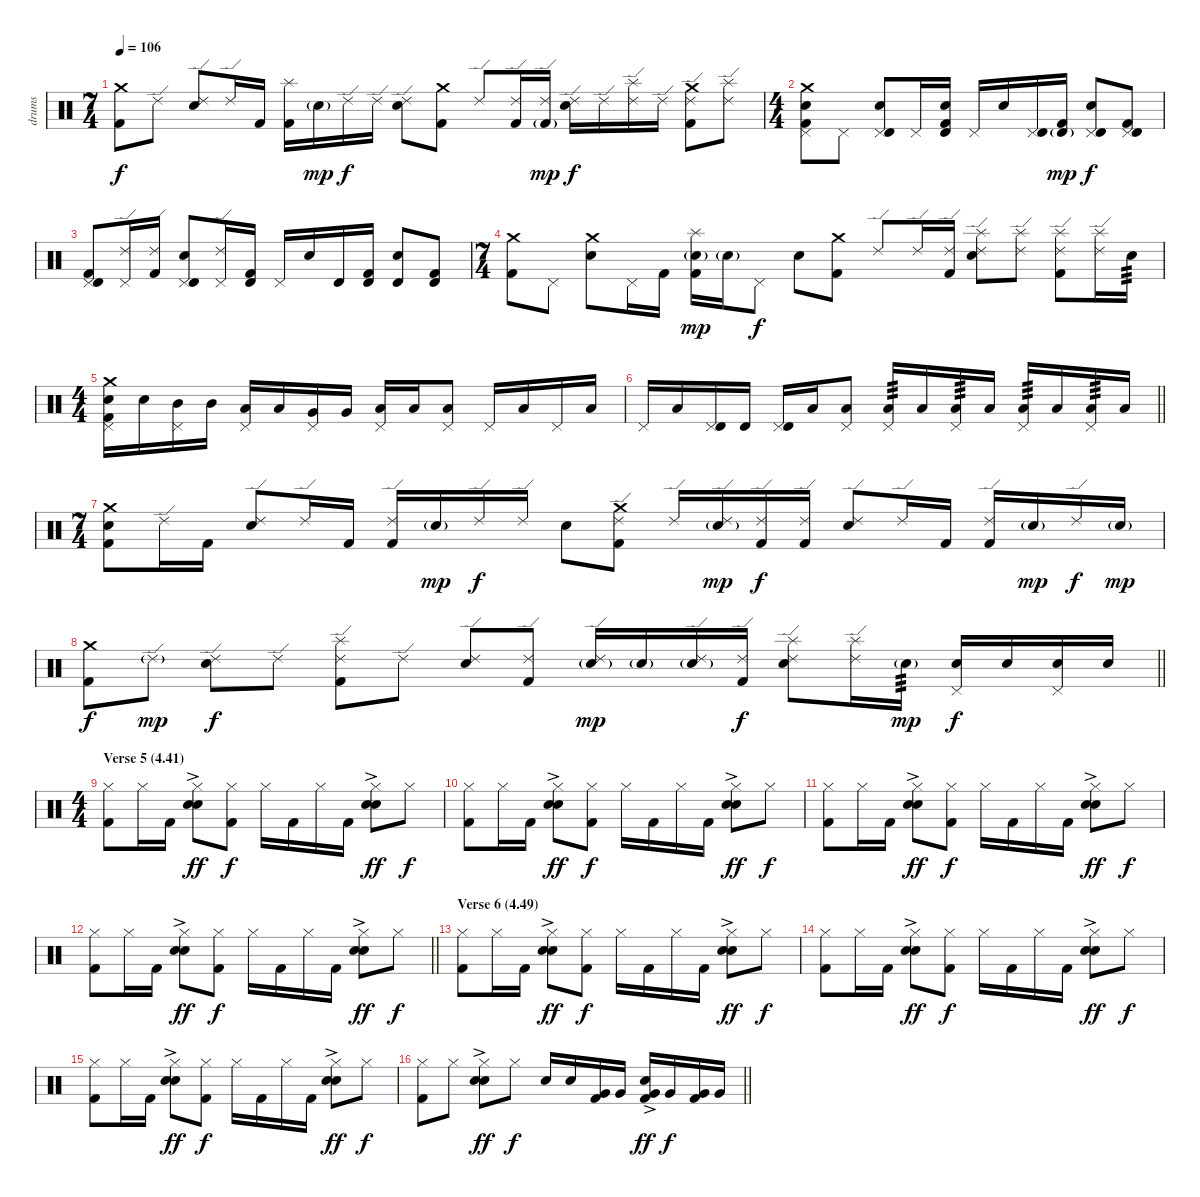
\track ("drums" "drums") {instrument percussion}
\staff {score}
\articulation defaults
\ts (7 4)
\tempo 106
\clef neutral
\ks c
("Crash medium (hit)" "Kick (hit) 2").8{dy f} "Ride (edge) 2".8 ("Ride (edge) 2" "Electric Snare (hit)").8 "Ride (edge) 2".16 "Kick (hit) 2".16 ("Splash (hit)" "Kick (hit) 2").16 "Electric Snare (hit)"{g}.16{dy mp} "Ride (edge) 2".16{dy f} "Ride (edge) 2".16 ("Ride (edge) 2" "Electric Snare (hit)").8 ("Crash medium (hit)" "Kick (hit) 2").8 "Ride (edge) 2".8 ("Ride (edge) 2" "Kick (hit) 2").16 ("Ride (edge) 2" "Kick (hit) 2"{g}).16{dy mp} ("Ride (edge) 2" "Electric Snare (hit)").16{dy f} "Ride (edge) 2".16 ("Ride (edge) 2" "Splash (hit)").16 "Ride (edge) 2".16 ("Ride (edge) 2" "Crash medium (hit)" "Kick (hit) 2").8 ("Ride (edge) 2" "Splash (hit)").8 |
\ts (4 4)
("Pedal Hi-Hat (hit)" "Crash medium (hit)" "Electric Snare (hit)" "Kick (hit) 2").8 "Pedal Hi-Hat (hit)".8 ("Pedal Hi-Hat (hit)" "Timbale high (hit)" "Electric Snare (hit)").8 "Pedal Hi-Hat (hit)".16 ("Timbale high (hit)" "Electric Snare (hit)" "Kick (hit) 2").16 "Pedal Hi-Hat (hit)".16 "Electric Snare (hit)".16 ("Pedal Hi-Hat (hit)" "Timbale high (hit)").16 ("Timbale high (hit)"{g} "Kick (hit) 2").16{dy mp} ("Pedal Hi-Hat (hit)" "Timbale high (hit)" "Electric Snare (hit)").8{dy f} ("Pedal Hi-Hat (hit)" "Timbale high (hit)" "Kick (hit) 2").8 |
("Pedal Hi-Hat (hit)" "Timbale high (hit)" "Kick (hit) 2").8 ("Ride (edge) 2" "Pedal Hi-Hat (hit)").16 ("Ride (edge) 2" "Kick (hit) 2").16 ("Pedal Hi-Hat (hit)" "Timbale high (hit)" "Electric Snare (hit)").8 ("Ride (edge) 2" "Pedal Hi-Hat (hit)").16 ("Timbale high (hit)" "Kick (hit) 2").16 "Pedal Hi-Hat (hit)".16 "Electric Snare (hit)".16 "Timbale high (hit)".16 ("Timbale high (hit)" "Kick (hit) 2").16 ("Timbale high (hit)" "Electric Snare (hit)").8 ("Timbale high (hit)" "Kick (hit) 2").8 |
\ts (7 4)
("Crash medium (hit)" "Kick (hit) 2").8 "Pedal Hi-Hat (hit)".8 ("Crash medium (hit)" "Electric Snare (hit)").8 "Pedal Hi-Hat (hit)".16 "Kick (hit) 2".16 ("Splash (hit)" "Electric Snare (hit)"{g} "Kick (hit) 2").16{dy mp} "Electric Snare (hit)"{g}.16 "Pedal Hi-Hat (hit)".8{dy f} "Electric Snare (hit)".8 ("Crash medium (hit)" "Kick (hit) 2").8 "Ride (edge) 2".8 "Ride (edge) 2".16 ("Ride (edge) 2" "Kick (hit) 2").16 ("Ride (edge) 2" "Splash (hit)" "Electric Snare (hit)").8 ("Ride (edge) 2" "Splash (hit)").8 ("Ride (edge) 2" "Splash (hit)" "Kick (hit) 2").8 ("Ride (edge) 2" "Splash (hit)").16 "Electric Snare (hit)".16{tp 3} |
\ts (4 4)
("Pedal Hi-Hat (hit)" "Crash medium (hit)" "Electric Snare (hit)" "Kick (hit) 2").16 "Electric Snare (hit)".16 ("Pedal Hi-Hat (hit)" "Mid Tom (hit)").16 "Mid Tom (hit)".16 ("Pedal Hi-Hat (hit)" "Low Tom (hit)").16 "Low Tom (hit)".16 ("Pedal Hi-Hat (hit)" "Very Low Tom (hit)").16 "Very Low Tom (hit)".16 ("Pedal Hi-Hat (hit)" "Low Floor Tom (hit)").16 "Low Floor Tom (hit)".16 ("Pedal Hi-Hat (hit)" "Low Floor Tom (hit)").8 "Pedal Hi-Hat (hit)".16 "Low Tom (hit)".16 "Pedal Hi-Hat (hit)".16 "Low Tom (hit)".16 |
\barLineRight lightlight "Pedal Hi-Hat (hit)".16 "Low Tom (hit)".16
("Pedal Hi-Hat (hit)" "Timbale high (hit)").16 "Timbale high (hit)".16 ("Pedal Hi-Hat (hit)" "Timbale high (hit)").16 "Low Tom (hit)".16 ("Pedal Hi-Hat (hit)" "Low Tom (hit)").8 ("Pedal Hi-Hat (hit)" "Low Tom (hit)").16{tp 3} "Low Tom (hit)".16 ("Pedal Hi-Hat (hit)" "Low Tom (hit)").16{tp 3} "Low Tom (hit)".16 ("Pedal Hi-Hat (hit)" "Low Tom (hit)").16{tp 3} "Low Tom (hit)".16 ("Pedal Hi-Hat (hit)" "Low Tom (hit)").16{tp 3} "Low Tom (hit)".16 |
\ts (7 4)
("Crash medium (hit)" "Electric Snare (hit)" "Kick (hit) 2").8 "Ride (edge) 2".16 "Kick (hit) 2".16 ("Ride (edge) 2" "Electric Snare (hit)").8 "Ride (edge) 2".16 "Kick (hit) 2".16 ("Ride (edge) 2" "Kick (hit) 2").16 "Electric Snare (hit)"{g}.16{dy mp} "Ride (edge) 2".16{dy f} "Ride (edge) 2".16 "Electric Snare (hit)".8 ("Ride (edge) 2" "Crash medium (hit)" "Kick (hit) 2").8 "Ride (edge) 2".16 ("Ride (edge) 2" "Electric Snare (hit)"{g}).16{dy mp} ("Ride (edge) 2" "Kick (hit) 2").16{dy f} ("Ride (edge) 2" "Kick (hit) 2").16 ("Ride (edge) 2" "Electric Snare (hit)").8 "Ride (edge) 2".16 "Kick (hit) 2".16 ("Ride (edge) 2" "Kick (hit) 2").16 "Electric Snare (hit)"{g}.16{dy mp} "Ride (edge) 2".16{dy f} "Electric Snare (hit)"{g}.16{dy mp} |
\barLineRight lightlight
("Crash medium (hit)" "Kick (hit) 2").8{dy f} "Ride (edge) 2"{g}.8{dy mp} ("Ride (edge) 2" "Electric Snare (hit)").8{dy f} "Ride (edge) 2".8 ("Ride (edge) 2" "Splash (hit)" "Kick (hit) 2").8 "Ride (edge) 2".8 ("Ride (edge) 2" "Electric Snare (hit)").8 ("Ride (edge) 2" "Kick (hit) 2").8 ("Ride (edge) 2" "Electric Snare (hit)"{g}).16{dy mp} "Electric Snare (hit)"{g}.16 ("Ride (edge) 2" "Electric Snare (hit)"{g}).16 ("Ride (edge) 2" "Kick (hit) 2").16{dy f} ("Ride (edge) 2" "Splash (hit)" "Electric Snare (hit)").8 ("Ride (edge) 2" "Splash (hit)").16 "Electric Snare (hit)"{g}.16{tp 3 dy mp} ("Pedal Hi-Hat (hit)" "Electric Snare (hit)").16{dy f} "Electric Snare (hit)".16 ("Pedal Hi-Hat (hit)" "Electric Snare (hit)").16 "Electric Snare (hit)".16 |
\ts (4 4)
\section ("" "Verse 5 (4.41)")
("Hi-Hat (closed)" "Kick (hit) 2").8 "Hi-Hat (closed)".16 "Kick (hit) 2".16 ("Hi-Hat (closed)" "Hand Clap (hit)"{ac} "Electric Snare (hit)").8{dy ff} ("Hi-Hat (closed)" "Kick (hit) 2").8{dy f} "Hi-Hat (closed)".16 "Kick (hit) 2".16 "Hi-Hat (closed)".16 "Kick (hit) 2".16 ("Hi-Hat (closed)" "Hand Clap (hit)"{ac} "Electric Snare (hit)").8{dy ff} "Hi-Hat (closed)".8{dy f} |
("Hi-Hat (closed)" "Kick (hit) 2").8 "Hi-Hat (closed)".16 "Kick (hit) 2".16 ("Hi-Hat (closed)" "Hand Clap (hit)"{ac} "Electric Snare (hit)").8{dy ff} ("Hi-Hat (closed)" "Kick (hit) 2").8{dy f} "Hi-Hat (closed)".16 "Kick (hit) 2".16 "Hi-Hat (closed)".16 "Kick (hit) 2".16 ("Hi-Hat (closed)" "Hand Clap (hit)"{ac} "Electric Snare (hit)").8{dy ff} "Hi-Hat (closed)".8{dy f} |
("Hi-Hat (closed)" "Kick (hit) 2").8 "Hi-Hat (closed)".16 "Kick (hit) 2".16 ("Hi-Hat (closed)" "Hand Clap (hit)"{ac} "Electric Snare (hit)").8{dy ff} ("Hi-Hat (closed)" "Kick (hit) 2").8{dy f} "Hi-Hat (closed)".16 "Kick (hit) 2".16 "Hi-Hat (closed)".16 "Kick (hit) 2".16 ("Hi-Hat (closed)" "Hand Clap (hit)"{ac} "Electric Snare (hit)").8{dy ff} "Hi-Hat (closed)".8{dy f} |
\barLineRight lightlight
("Hi-Hat (closed)" "Kick (hit) 2").8 "Hi-Hat (closed)".16 "Kick (hit) 2".16 ("Hi-Hat (closed)" "Hand Clap (hit)"{ac} "Electric Snare (hit)").8{dy ff} ("Hi-Hat (closed)" "Kick (hit) 2").8{dy f} "Hi-Hat (closed)".16 "Kick (hit) 2".16 "Hi-Hat (closed)".16 "Kick (hit) 2".16 ("Hi-Hat (closed)" "Hand Clap (hit)"{ac} "Electric Snare (hit)").8{dy ff} "Hi-Hat (closed)".8{dy f} |
\section ("" "Verse 6 (4.49)")
("Hi-Hat (closed)" "Kick (hit) 2").8 "Hi-Hat (closed)".16 "Kick (hit) 2".16 ("Hi-Hat (closed)" "Hand Clap (hit)"{ac} "Electric Snare (hit)").8{dy ff} ("Hi-Hat (closed)" "Kick (hit) 2").8{dy f} "Hi-Hat (closed)".16 "Kick (hit) 2".16 "Hi-Hat (closed)".16 "Kick (hit) 2".16 ("Hi-Hat (closed)" "Hand Clap (hit)"{ac} "Electric Snare (hit)").8{dy ff} "Hi-Hat (closed)".8{dy f} |
("Hi-Hat (closed)" "Kick (hit) 2").8 "Hi-Hat (closed)".16 "Kick (hit) 2".16 ("Hi-Hat (closed)" "Hand Clap (hit)"{ac} "Electric Snare (hit)").8{dy ff} ("Hi-Hat (closed)" "Kick (hit) 2").8{dy f} "Hi-Hat (closed)".16 "Kick (hit) 2".16 "Hi-Hat (closed)".16 "Kick (hit) 2".16 ("Hi-Hat (closed)" "Hand Clap (hit)"{ac} "Electric Snare (hit)").8{dy ff} "Hi-Hat (closed)".8{dy f} |
("Hi-Hat (closed)" "Kick (hit) 2").8 "Hi-Hat (closed)".16 "Kick (hit) 2".16 ("Hi-Hat (closed)" "Hand Clap (hit)"{ac} "Electric Snare (hit)").8{dy ff} ("Hi-Hat (closed)" "Kick (hit) 2").8{dy f} "Hi-Hat (closed)".16 "Kick (hit) 2".16 "Hi-Hat (closed)".16 "Kick (hit) 2".16 ("Hi-Hat (closed)" "Hand Clap (hit)"{ac} "Electric Snare (hit)").8{dy ff} "Hi-Hat (closed)".8{dy f} |
\barLineRight lightlight
("Hi-Hat (closed)" "Kick (hit) 2").8 "Hi-Hat (closed)".8 ("Hi-Hat (closed)" "Hand Clap (hit)"{ac} "Electric Snare (hit)").8{dy ff} "Hi-Hat (closed)".8{dy f} "Electric Snare (hit)".16 "Electric Snare (hit)".16 ("Very Low Tom (hit)" "Kick (hit) 2").16 "Very Low Tom (hit)".16 ("Hand Clap (hit)"{ac} "Very Low Tom (hit)" "Kick (hit) 2").16{dy ff} "Very Low Tom (hit)".16{dy f} ("Very Low Tom (hit)" "Kick (hit) 2").16 "Very Low Tom (hit)".16
